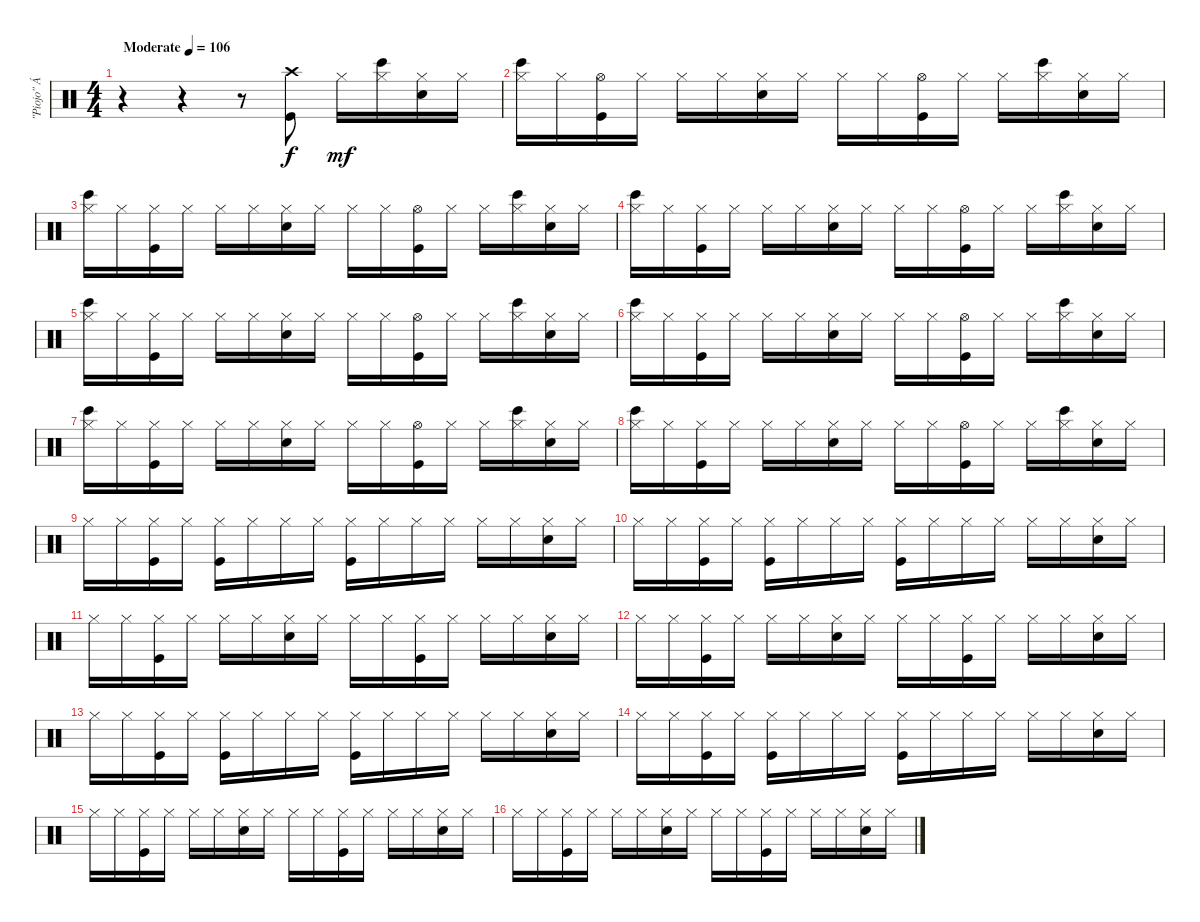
\track (" \"Piojo\" Ávalos" " \"Piojo\" Á") {instrument percussion}
\staff {score}
\articulation defaults
\ts (4 4)
\tempo (106 "Moderate")
\clef neutral
\ks c
r.4{dy f} r.4 r.8 ("Crash high (hit)" "Kick (hit)").8 "Hi-Hat (closed)".16{dy mf} ("Bongo High (hit)" "Hi-Hat (closed)").16 ("Hi-Hat (closed)" "Electric Snare (hit)").16 "Hi-Hat (closed)".16 |
("Bongo High (hit)" "Hi-Hat (closed)").16 "Hi-Hat (closed)".16 ("Hi-Hat (open)" "Kick (hit)").16 "Hi-Hat (closed)".16 "Hi-Hat (closed)".16 "Hi-Hat (closed)".16 ("Hi-Hat (closed)" "Electric Snare (hit)").16 "Hi-Hat (closed)".16 "Hi-Hat (closed)".16 "Hi-Hat (closed)".16 ("Hi-Hat (open)" "Kick (hit)").16 "Hi-Hat (closed)".16 "Hi-Hat (closed)".16 ("Bongo High (hit)" "Hi-Hat (closed)").16 ("Hi-Hat (closed)" "Electric Snare (hit)").16 "Hi-Hat (closed)".16 |
("Bongo High (hit)" "Hi-Hat (closed)").16 "Hi-Hat (closed)".16 ("Hi-Hat (closed)" "Kick (hit)").16 "Hi-Hat (closed)".16 "Hi-Hat (closed)".16 "Hi-Hat (closed)".16 ("Hi-Hat (closed)" "Electric Snare (hit)").16 "Hi-Hat (closed)".16 "Hi-Hat (closed)".16 "Hi-Hat (closed)".16 ("Hi-Hat (open)" "Kick (hit)").16 "Hi-Hat (closed)".16 "Hi-Hat (closed)".16 ("Bongo High (hit)" "Hi-Hat (closed)").16 ("Hi-Hat (closed)" "Electric Snare (hit)").16 "Hi-Hat (closed)".16 |
("Bongo High (hit)" "Hi-Hat (closed)").16 "Hi-Hat (closed)".16 ("Hi-Hat (closed)" "Kick (hit)").16 "Hi-Hat (closed)".16 "Hi-Hat (closed)".16 "Hi-Hat (closed)".16 ("Hi-Hat (closed)" "Electric Snare (hit)").16 "Hi-Hat (closed)".16 "Hi-Hat (closed)".16 "Hi-Hat (closed)".16 ("Hi-Hat (open)" "Kick (hit)").16 "Hi-Hat (closed)".16 "Hi-Hat (closed)".16 ("Bongo High (hit)" "Hi-Hat (closed)").16 ("Hi-Hat (closed)" "Electric Snare (hit)").16 "Hi-Hat (closed)".16 |
("Bongo High (hit)" "Hi-Hat (closed)").16 "Hi-Hat (closed)".16 ("Hi-Hat (closed)" "Kick (hit)").16 "Hi-Hat (closed)".16 "Hi-Hat (closed)".16 "Hi-Hat (closed)".16 ("Hi-Hat (closed)" "Electric Snare (hit)").16 "Hi-Hat (closed)".16 "Hi-Hat (closed)".16 "Hi-Hat (closed)".16 ("Hi-Hat (open)" "Kick (hit)").16 "Hi-Hat (closed)".16 "Hi-Hat (closed)".16 ("Bongo High (hit)" "Hi-Hat (closed)").16 ("Hi-Hat (closed)" "Electric Snare (hit)").16 "Hi-Hat (closed)".16 |
("Bongo High (hit)" "Hi-Hat (closed)").16 "Hi-Hat (closed)".16 ("Hi-Hat (closed)" "Kick (hit)").16 "Hi-Hat (closed)".16 "Hi-Hat (closed)".16 "Hi-Hat (closed)".16 ("Hi-Hat (closed)" "Electric Snare (hit)").16 "Hi-Hat (closed)".16 "Hi-Hat (closed)".16 "Hi-Hat (closed)".16 ("Hi-Hat (open)" "Kick (hit)").16 "Hi-Hat (closed)".16 "Hi-Hat (closed)".16 ("Bongo High (hit)" "Hi-Hat (closed)").16 ("Hi-Hat (closed)" "Electric Snare (hit)").16 "Hi-Hat (closed)".16 |
("Bongo High (hit)" "Hi-Hat (closed)").16 "Hi-Hat (closed)".16 ("Hi-Hat (closed)" "Kick (hit)").16 "Hi-Hat (closed)".16 "Hi-Hat (closed)".16 "Hi-Hat (closed)".16 ("Hi-Hat (closed)" "Electric Snare (hit)").16 "Hi-Hat (closed)".16 "Hi-Hat (closed)".16 "Hi-Hat (closed)".16 ("Hi-Hat (open)" "Kick (hit)").16 "Hi-Hat (closed)".16 "Hi-Hat (closed)".16 ("Bongo High (hit)" "Hi-Hat (closed)").16 ("Hi-Hat (closed)" "Electric Snare (hit)").16 "Hi-Hat (closed)".16 |
("Bongo High (hit)" "Hi-Hat (closed)").16 "Hi-Hat (closed)".16 ("Hi-Hat (closed)" "Kick (hit)").16 "Hi-Hat (closed)".16 "Hi-Hat (closed)".16 "Hi-Hat (closed)".16 ("Hi-Hat (closed)" "Electric Snare (hit)").16 "Hi-Hat (closed)".16 "Hi-Hat (closed)".16 "Hi-Hat (closed)".16 ("Hi-Hat (open)" "Kick (hit)").16 "Hi-Hat (closed)".16 "Hi-Hat (closed)".16 ("Bongo High (hit)" "Hi-Hat (closed)").16 ("Hi-Hat (closed)" "Electric Snare (hit)").16 "Hi-Hat (closed)".16 |
"Hi-Hat (closed)".16 "Hi-Hat (closed)".16 ("Hi-Hat (closed)" "Kick (hit)").16 "Hi-Hat (closed)".16 ("Hi-Hat (closed)" "Kick (hit)").16 "Hi-Hat (closed)".16 "Hi-Hat (closed)".16 "Hi-Hat (closed)".16 ("Hi-Hat (closed)" "Kick (hit)").16 "Hi-Hat (closed)".16 "Hi-Hat (closed)".16 "Hi-Hat (closed)".16 "Hi-Hat (closed)".16 "Hi-Hat (closed)".16 ("Hi-Hat (closed)" "Electric Snare (hit)").16 "Hi-Hat (closed)".16 |
"Hi-Hat (closed)".16 "Hi-Hat (closed)".16 ("Hi-Hat (closed)" "Kick (hit)").16 "Hi-Hat (closed)".16 ("Hi-Hat (closed)" "Kick (hit)").16 "Hi-Hat (closed)".16 "Hi-Hat (closed)".16 "Hi-Hat (closed)".16 ("Hi-Hat (closed)" "Kick (hit)").16 "Hi-Hat (closed)".16 "Hi-Hat (closed)".16 "Hi-Hat (closed)".16 "Hi-Hat (closed)".16 "Hi-Hat (closed)".16 ("Hi-Hat (closed)" "Electric Snare (hit)").16 "Hi-Hat (closed)".16 |
"Hi-Hat (closed)".16 "Hi-Hat (closed)".16 ("Hi-Hat (closed)" "Kick (hit)").16 "Hi-Hat (closed)".16 "Hi-Hat (closed)".16 "Hi-Hat (closed)".16 ("Hi-Hat (closed)" "Electric Snare (hit)").16 "Hi-Hat (closed)".16 "Hi-Hat (closed)".16 "Hi-Hat (closed)".16 ("Hi-Hat (closed)" "Kick (hit)").16 "Hi-Hat (closed)".16 "Hi-Hat (closed)".16 "Hi-Hat (closed)".16 ("Hi-Hat (closed)" "Electric Snare (hit)").16 "Hi-Hat (closed)".16 |
"Hi-Hat (closed)".16 "Hi-Hat (closed)".16 ("Hi-Hat (closed)" "Kick (hit)").16 "Hi-Hat (closed)".16 "Hi-Hat (closed)".16 "Hi-Hat (closed)".16 ("Hi-Hat (closed)" "Electric Snare (hit)").16 "Hi-Hat (closed)".16 "Hi-Hat (closed)".16 "Hi-Hat (closed)".16 ("Hi-Hat (closed)" "Kick (hit)").16 "Hi-Hat (closed)".16 "Hi-Hat (closed)".16 "Hi-Hat (closed)".16 ("Hi-Hat (closed)" "Electric Snare (hit)").16 "Hi-Hat (closed)".16 |
"Hi-Hat (closed)".16 "Hi-Hat (closed)".16 ("Hi-Hat (closed)" "Kick (hit)").16 "Hi-Hat (closed)".16 ("Hi-Hat (closed)" "Kick (hit)").16 "Hi-Hat (closed)".16 "Hi-Hat (closed)".16 "Hi-Hat (closed)".16 ("Hi-Hat (closed)" "Kick (hit)").16 "Hi-Hat (closed)".16 "Hi-Hat (closed)".16 "Hi-Hat (closed)".16 "Hi-Hat (closed)".16 "Hi-Hat (closed)".16 ("Hi-Hat (closed)" "Electric Snare (hit)").16 "Hi-Hat (closed)".16 |
"Hi-Hat (closed)".16 "Hi-Hat (closed)".16 ("Hi-Hat (closed)" "Kick (hit)").16 "Hi-Hat (closed)".16 ("Hi-Hat (closed)" "Kick (hit)").16 "Hi-Hat (closed)".16 "Hi-Hat (closed)".16 "Hi-Hat (closed)".16 ("Hi-Hat (closed)" "Kick (hit)").16 "Hi-Hat (closed)".16 "Hi-Hat (closed)".16 "Hi-Hat (closed)".16 "Hi-Hat (closed)".16 "Hi-Hat (closed)".16 ("Hi-Hat (closed)" "Electric Snare (hit)").16 "Hi-Hat (closed)".16 |
"Hi-Hat (closed)".16 "Hi-Hat (closed)".16 ("Hi-Hat (closed)" "Kick (hit)").16 "Hi-Hat (closed)".16 "Hi-Hat (closed)".16 "Hi-Hat (closed)".16 ("Hi-Hat (closed)" "Electric Snare (hit)").16 "Hi-Hat (closed)".16 "Hi-Hat (closed)".16 "Hi-Hat (closed)".16 ("Hi-Hat (closed)" "Kick (hit)").16 "Hi-Hat (closed)".16 "Hi-Hat (closed)".16 "Hi-Hat (closed)".16 ("Hi-Hat (closed)" "Electric Snare (hit)").16 "Hi-Hat (closed)".16 |
"Hi-Hat (closed)".16 "Hi-Hat (closed)".16 ("Hi-Hat (closed)" "Kick (hit)").16 "Hi-Hat (closed)".16 "Hi-Hat (closed)".16 "Hi-Hat (closed)".16 ("Hi-Hat (closed)" "Electric Snare (hit)").16 "Hi-Hat (closed)".16 "Hi-Hat (closed)".16 "Hi-Hat (closed)".16 ("Hi-Hat (closed)" "Kick (hit)").16 "Hi-Hat (closed)".16 "Hi-Hat (closed)".16 "Hi-Hat (closed)".16 ("Hi-Hat (closed)" "Electric Snare (hit)").16 "Hi-Hat (closed)".16
